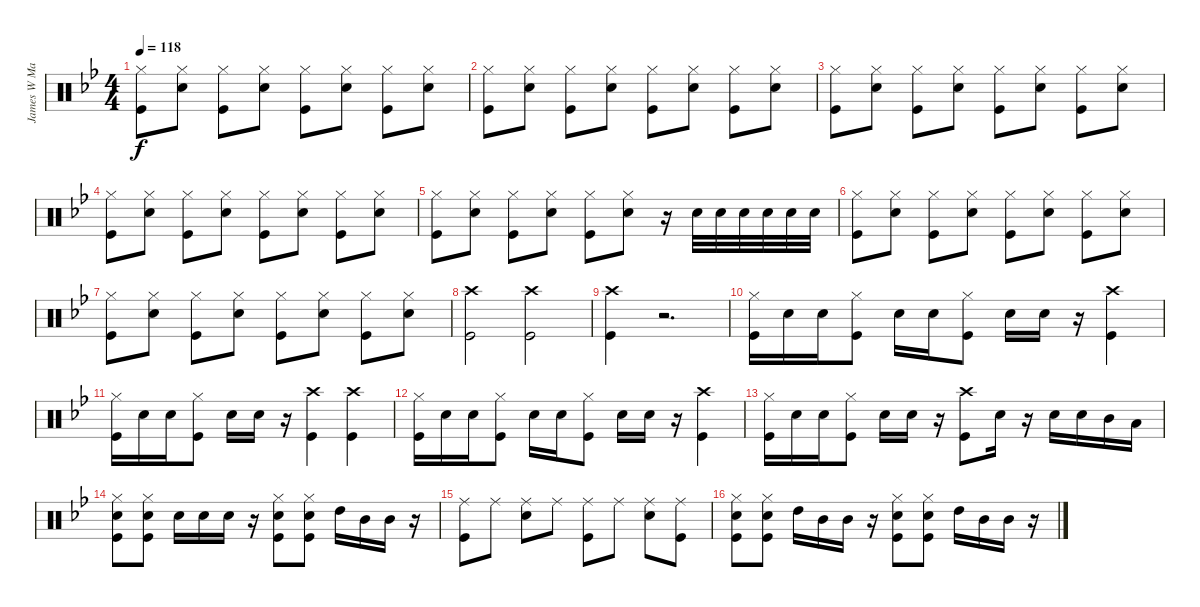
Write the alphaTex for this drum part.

\track ("James W Marshall Drums" "James W Ma") {instrument percussion}
\staff {score}
\articulation defaults
\ts (4 4)
\tempo 118
\clef neutral
\ks gminor
("Hi-Hat (closed)" "Kick (hit)").8{dy f} ("Hi-Hat (closed)" "Snare (hit) 2").8 ("Hi-Hat (closed)" "Kick (hit)").8 ("Hi-Hat (closed)" "Snare (hit) 2").8 ("Hi-Hat (closed)" "Kick (hit)").8 ("Hi-Hat (closed)" "Snare (hit) 2").8 ("Hi-Hat (closed)" "Kick (hit)").8 ("Hi-Hat (closed)" "Snare (hit) 2").8 |
("Hi-Hat (closed)" "Kick (hit)").8 ("Hi-Hat (closed)" "Snare (hit) 2").8 ("Hi-Hat (closed)" "Kick (hit)").8 ("Hi-Hat (closed)" "Snare (hit) 2").8 ("Hi-Hat (closed)" "Kick (hit)").8 ("Hi-Hat (closed)" "Snare (hit) 2").8 ("Hi-Hat (closed)" "Kick (hit)").8 ("Hi-Hat (closed)" "Snare (hit) 2").8 |
("Hi-Hat (closed)" "Kick (hit)").8 ("Hi-Hat (closed)" "Snare (hit) 2").8 ("Hi-Hat (closed)" "Kick (hit)").8 ("Hi-Hat (closed)" "Snare (hit) 2").8 ("Hi-Hat (closed)" "Kick (hit)").8 ("Hi-Hat (closed)" "Snare (hit) 2").8 ("Hi-Hat (closed)" "Kick (hit)").8 ("Hi-Hat (closed)" "Snare (hit) 2").8 |
("Hi-Hat (closed)" "Kick (hit)").8 ("Hi-Hat (closed)" "Snare (hit) 2").8 ("Hi-Hat (closed)" "Kick (hit)").8 ("Hi-Hat (closed)" "Snare (hit) 2").8 ("Hi-Hat (closed)" "Kick (hit)").8 ("Hi-Hat (closed)" "Snare (hit) 2").8 ("Hi-Hat (closed)" "Kick (hit)").8 ("Hi-Hat (closed)" "Snare (hit) 2").8 |
("Hi-Hat (closed)" "Kick (hit)").8 ("Hi-Hat (closed)" "Snare (hit) 2").8 ("Hi-Hat (closed)" "Kick (hit)").8 ("Hi-Hat (closed)" "Snare (hit) 2").8 ("Hi-Hat (closed)" "Kick (hit)").8 ("Hi-Hat (closed)" "Snare (hit) 2").8 r.16 "Snare (hit) 2".32 "Snare (hit) 2".32 "Snare (hit) 2".32 "Snare (hit) 2".32 "Snare (hit) 2".32 "Snare (hit) 2".32 |
("Hi-Hat (closed)" "Kick (hit)").8 ("Hi-Hat (closed)" "Snare (hit) 2").8 ("Hi-Hat (closed)" "Kick (hit)").8 ("Hi-Hat (closed)" "Snare (hit) 2").8 ("Hi-Hat (closed)" "Kick (hit)").8 ("Hi-Hat (closed)" "Snare (hit) 2").8 ("Hi-Hat (closed)" "Kick (hit)").8 ("Hi-Hat (closed)" "Snare (hit) 2").8 |
("Hi-Hat (closed)" "Kick (hit)").8 ("Hi-Hat (closed)" "Snare (hit) 2").8 ("Hi-Hat (closed)" "Kick (hit)").8 ("Hi-Hat (closed)" "Snare (hit) 2").8 ("Hi-Hat (closed)" "Kick (hit)").8 ("Hi-Hat (closed)" "Snare (hit) 2").8 ("Hi-Hat (closed)" "Kick (hit)").8 ("Hi-Hat (closed)" "Snare (hit) 2").8 |
("Crash high (hit)" "Kick (hit)").2 ("Crash high (hit)" "Kick (hit)").2 |
("Crash high (hit)" "Kick (hit)").4 r.2{d} |
("Hi-Hat (closed)" "Kick (hit)").16 "Snare (hit) 2".16 "Snare (hit) 2".16 ("Hi-Hat (closed)" "Kick (hit)").8 "Snare (hit) 2".16 "Snare (hit) 2".16 ("Hi-Hat (closed)" "Kick (hit)").8 "Snare (hit) 2".16 "Snare (hit) 2".16 r.16 ("Crash high (hit)" "Kick (hit)").4 |
("Hi-Hat (closed)" "Kick (hit)").16 "Snare (hit) 2".16 "Snare (hit) 2".16 ("Hi-Hat (closed)" "Kick (hit)").8 "Snare (hit) 2".16 "Snare (hit) 2".16 r.16 ("Crash high (hit)" "Kick (hit)").4 ("Crash high (hit)" "Kick (hit)").4 |
("Hi-Hat (closed)" "Kick (hit)").16 "Snare (hit) 2".16 "Snare (hit) 2".16 ("Hi-Hat (closed)" "Kick (hit)").8 "Snare (hit) 2".16 "Snare (hit) 2".16 ("Hi-Hat (closed)" "Kick (hit)").8 "Snare (hit) 2".16 "Snare (hit) 2".16 r.16 ("Crash high (hit)" "Kick (hit)").4 |
("Hi-Hat (closed)" "Kick (hit)").16 "Snare (hit) 2".16 "Snare (hit) 2".16 ("Hi-Hat (closed)" "Kick (hit)").8 "Snare (hit) 2".16 "Snare (hit) 2".16 r.16 ("Crash high (hit)" "Kick (hit)").8 "Snare (hit) 2".16 r.16 "Snare (hit) 2".16 "Snare (hit) 2".16 "Mid Tom (hit)".16 "Low Tom (hit)".16 |
("Hi-Hat (closed)" "Snare (hit) 2" "Kick (hit)").8 ("Hi-Hat (closed)" "Snare (hit) 2" "Kick (hit)").8 "Snare (hit) 2".16 "Snare (hit) 2".16 "Snare (hit) 2".16 r.16 ("Hi-Hat (closed)" "Snare (hit) 2" "Kick (hit)").8 ("Hi-Hat (closed)" "Snare (hit) 2" "Kick (hit)").8 "High Tom (hit)".16 "Mid Tom (hit)".16 "Mid Tom (hit)".16 r.16 |
("Ride (middle)" "Kick (hit)").8 "Ride (middle)".8 ("Ride (middle)" "Snare (hit) 2").8 "Ride (middle)".8 ("Ride (middle)" "Kick (hit)").8 "Ride (middle)".8 ("Ride (middle)" "Snare (hit) 2").8 ("Ride (middle)" "Kick (hit)").8 |
("Hi-Hat (closed)" "Snare (hit) 2" "Kick (hit)").8 ("Hi-Hat (closed)" "Snare (hit) 2" "Kick (hit)").8 "High Tom (hit)".16 "Mid Tom (hit)".16 "Mid Tom (hit)".16 r.16 ("Hi-Hat (closed)" "Snare (hit) 2" "Kick (hit)").8 ("Hi-Hat (closed)" "Snare (hit) 2" "Kick (hit)").8 "High Tom (hit)".16 "Mid Tom (hit)".16 "Mid Tom (hit)".16 r.16
